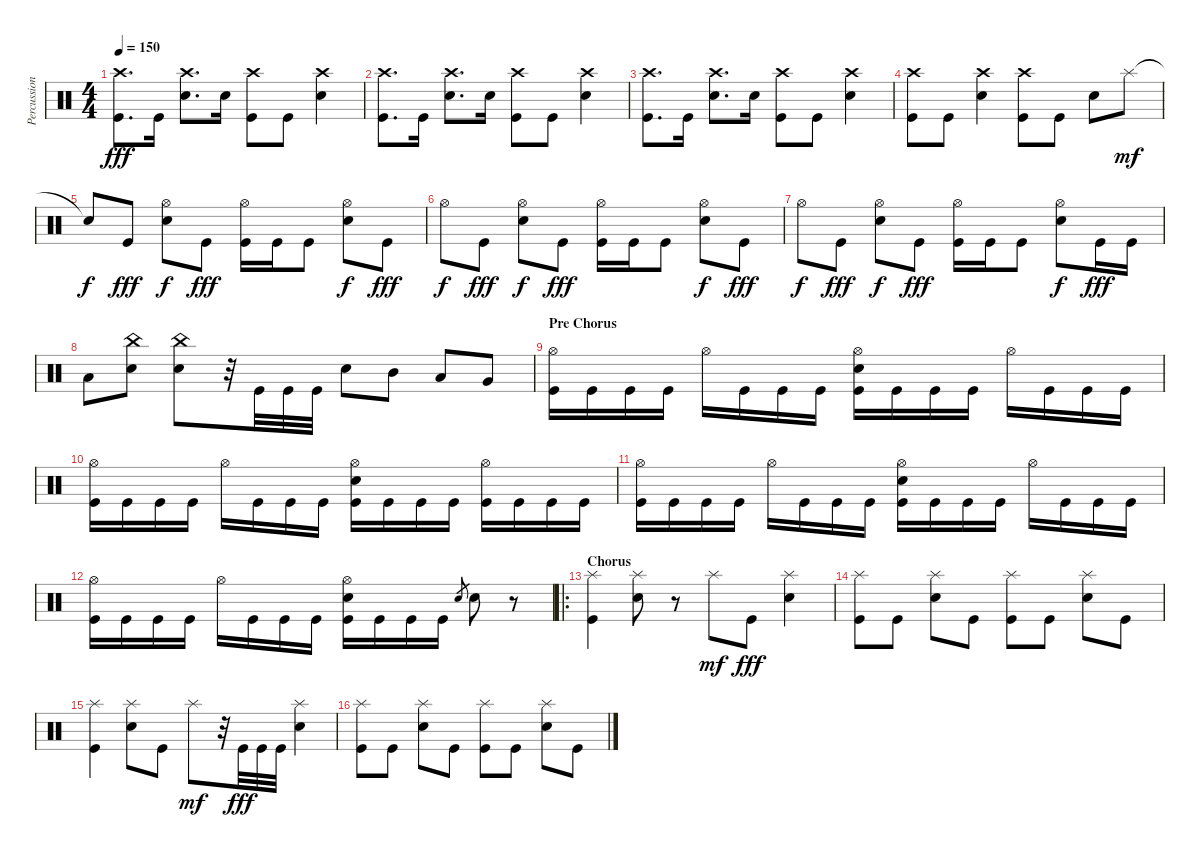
\track ("Percussion" "Percussion") {instrument percussion}
\staff {score}
\articulation defaults
\ts (4 4)
\tempo 150
\clef neutral
\ks c
("Crash high (hit)" "Kick (hit)").8{d dy fff} "Kick (hit)".16 ("Crash high (hit)" "Electric Snare (hit)").8{d} "Electric Snare (hit)".16 ("Crash high (hit)" "Kick (hit)").8 "Kick (hit)".8 ("Crash high (hit)" "Electric Snare (hit)").4 |
("Crash high (hit)" "Kick (hit)").8{d} "Kick (hit)".16 ("Crash high (hit)" "Electric Snare (hit)").8{d} "Electric Snare (hit)".16 ("Crash high (hit)" "Kick (hit)").8 "Kick (hit)".8 ("Crash high (hit)" "Electric Snare (hit)").4 |
("Crash high (hit)" "Kick (hit)").8{d} "Kick (hit)".16 ("Crash high (hit)" "Electric Snare (hit)").8{d} "Electric Snare (hit)".16 ("Crash high (hit)" "Kick (hit)").8 "Kick (hit)".8 ("Crash high (hit)" "Electric Snare (hit)").4 |
("Crash high (hit)" "Kick (hit)").8 "Kick (hit)".8 ("Crash high (hit)" "Electric Snare (hit)").4 ("Crash high (hit)" "Kick (hit)").8 "Kick (hit)".8 "Electric Snare (hit)".8 "Splash (hit)".8{dy mf} |
"Snare (hit)"{t}.8{dy f} "Kick (hit)".8{dy fff} ("Hi-Hat (open)" "Electric Snare (hit)").8{dy f} "Kick (hit)".8{dy fff} ("Hi-Hat (open)" "Kick (hit)").16 "Kick (hit)".16 "Kick (hit)".8 ("Hi-Hat (open)" "Electric Snare (hit)").8{dy f} "Kick (hit)".8{dy fff} |
"Hi-Hat (open)".8{dy f} "Kick (hit)".8{dy fff} ("Hi-Hat (open)" "Electric Snare (hit)").8{dy f} "Kick (hit)".8{dy fff} ("Hi-Hat (open)" "Kick (hit)").16 "Kick (hit)".16 "Kick (hit)".8 ("Hi-Hat (open)" "Electric Snare (hit)").8{dy f} "Kick (hit)".8{dy fff} |
"Hi-Hat (open)".8{dy f} "Kick (hit)".8{dy fff} ("Hi-Hat (open)" "Electric Snare (hit)").8{dy f} "Kick (hit)".8{dy fff} ("Hi-Hat (open)" "Kick (hit)").16 "Kick (hit)".16 "Kick (hit)".8 ("Hi-Hat (open)" "Electric Snare (hit)").8{dy f} "Kick (hit)".16{dy fff} "Kick (hit)".16 |
"Low Floor Tom (hit)".8 ("China (hit)" "Electric Snare (hit)").8 ("China (hit)" "Electric Snare (hit)").8 r.32 "Kick (hit)".32 "Kick (hit)".32 "Kick (hit)".32 "Electric Snare (hit)".8 "Mid Tom (hit)".8 "Low Tom (hit)".8 "Very Low Tom (hit)".8 |
\section ("" "Pre Chorus")
("Hi-Hat (open)" "Kick (hit)").16 "Kick (hit)".16 "Kick (hit)".16 "Kick (hit)".16 "Hi-Hat (open)".16 "Kick (hit)".16 "Kick (hit)".16 "Kick (hit)".16 ("Hi-Hat (open)" "Electric Snare (hit)" "Kick (hit)").16 "Kick (hit)".16 "Kick (hit)".16 "Kick (hit)".16 "Hi-Hat (open)".16 "Kick (hit)".16 "Kick (hit)".16 "Kick (hit)".16 |
("Hi-Hat (open)" "Kick (hit)").16 "Kick (hit)".16 "Kick (hit)".16 "Kick (hit)".16 "Hi-Hat (open)".16 "Kick (hit)".16 "Kick (hit)".16 "Kick (hit)".16 ("Hi-Hat (open)" "Electric Snare (hit)" "Kick (hit)").16 "Kick (hit)".16 "Kick (hit)".16 "Kick (hit)".16 ("Hi-Hat (open)" "Kick (hit)").16 "Kick (hit)".16 "Kick (hit)".16 "Kick (hit)".16 |
("Hi-Hat (open)" "Kick (hit)").16 "Kick (hit)".16 "Kick (hit)".16 "Kick (hit)".16 "Hi-Hat (open)".16 "Kick (hit)".16 "Kick (hit)".16 "Kick (hit)".16 ("Hi-Hat (open)" "Electric Snare (hit)" "Kick (hit)").16 "Kick (hit)".16 "Kick (hit)".16 "Kick (hit)".16 "Hi-Hat (open)".16 "Kick (hit)".16 "Kick (hit)".16 "Kick (hit)".16 |
("Hi-Hat (open)" "Kick (hit)").16 "Kick (hit)".16 "Kick (hit)".16 "Kick (hit)".16 "Hi-Hat (open)".16 "Kick (hit)".16 "Kick (hit)".16 "Kick (hit)".16 ("Hi-Hat (open)" "Electric Snare (hit)" "Kick (hit)").16 "Kick (hit)".16 "Kick (hit)".16 "Kick (hit)".16 "Electric Snare (hit)".8{gr} "Electric Snare (hit)".8 r.8 |
\ro
\section ("" "Chorus")
("Splash (hit)" "Kick (hit)").4 ("Splash (hit)" "Electric Snare (hit)").8 r.8 "Splash (hit)".8{dy mf} "Kick (hit)".8{dy fff} ("Splash (hit)" "Electric Snare (hit)").4 |
("Splash (hit)" "Kick (hit)").8 "Kick (hit)".8 ("Splash (hit)" "Electric Snare (hit)").8 "Kick (hit)".8 ("Splash (hit)" "Kick (hit)").8 "Kick (hit)".8 ("Splash (hit)" "Electric Snare (hit)").8 "Kick (hit)".8 |
("Splash (hit)" "Kick (hit)").4 ("Splash (hit)" "Electric Snare (hit)").8 "Kick (hit)".8 "Splash (hit)".8{dy mf} r.32 "Kick (hit)".32{dy fff} "Kick (hit)".32 "Kick (hit)".32 ("Splash (hit)" "Electric Snare (hit)").4 |
("Splash (hit)" "Kick (hit)").8 "Kick (hit)".8 ("Splash (hit)" "Electric Snare (hit)").8 "Kick (hit)".8 ("Splash (hit)" "Kick (hit)").8 "Kick (hit)".8 ("Splash (hit)" "Electric Snare (hit)").8 "Kick (hit)".8
